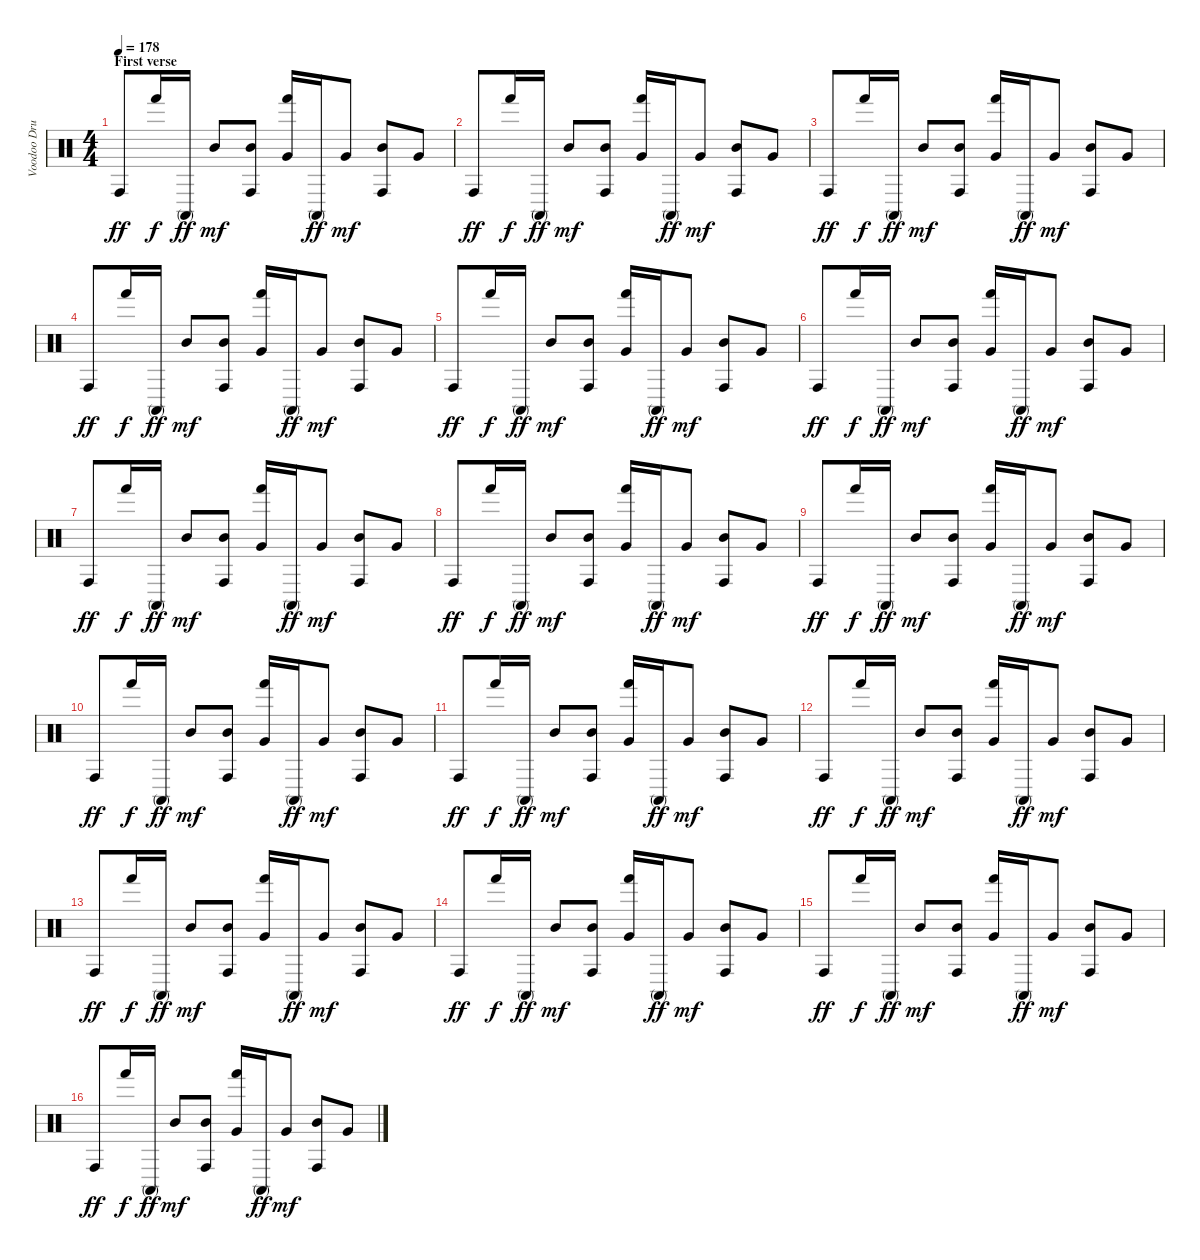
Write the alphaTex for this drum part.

\track ("Voodoo Drums" "Voodoo Dru") {instrument percussion}
\staff {score}
\articulation defaults
\ts (4 4)
\section ("" "First verse")
\tempo 178
\clef neutral
\ks c "Conga high (hit)".8{dy ff} "Hand (hit)".16{dy f} "Conga high (mute)".16{dy ff} "Mid Tom (hit)".8{dy mf}
("Conga high (hit)" "Mid Tom (hit)").8 ("Hand (hit)" "Very Low Tom (hit)").16 "Conga high (mute)".16{dy ff} "Very Low Tom (hit)".8{dy mf} ("Conga high (hit)" "Mid Tom (hit)").8 "Very Low Tom (hit)".8 |
"Conga high (hit)".8{dy ff} "Hand (hit)".16{dy f} "Conga high (mute)".16{dy ff} "Mid Tom (hit)".8{dy mf} ("Conga high (hit)" "Mid Tom (hit)").8 ("Hand (hit)" "Very Low Tom (hit)").16 "Conga high (mute)".16{dy ff} "Very Low Tom (hit)".8{dy mf} ("Conga high (hit)" "Mid Tom (hit)").8 "Very Low Tom (hit)".8 |
"Conga high (hit)".8{dy ff} "Hand (hit)".16{dy f} "Conga high (mute)".16{dy ff} "Mid Tom (hit)".8{dy mf} ("Conga high (hit)" "Mid Tom (hit)").8 ("Hand (hit)" "Very Low Tom (hit)").16 "Conga high (mute)".16{dy ff} "Very Low Tom (hit)".8{dy mf} ("Conga high (hit)" "Mid Tom (hit)").8 "Very Low Tom (hit)".8 |
"Conga high (hit)".8{dy ff} "Hand (hit)".16{dy f} "Conga high (mute)".16{dy ff} "Mid Tom (hit)".8{dy mf} ("Conga high (hit)" "Mid Tom (hit)").8 ("Hand (hit)" "Very Low Tom (hit)").16 "Conga high (mute)".16{dy ff} "Very Low Tom (hit)".8{dy mf} ("Conga high (hit)" "Mid Tom (hit)").8 "Very Low Tom (hit)".8 |
"Conga high (hit)".8{dy ff} "Hand (hit)".16{dy f} "Conga high (mute)".16{dy ff} "Mid Tom (hit)".8{dy mf} ("Conga high (hit)" "Mid Tom (hit)").8 ("Hand (hit)" "Very Low Tom (hit)").16 "Conga high (mute)".16{dy ff} "Very Low Tom (hit)".8{dy mf} ("Conga high (hit)" "Mid Tom (hit)").8 "Very Low Tom (hit)".8 |
"Conga high (hit)".8{dy ff} "Hand (hit)".16{dy f} "Conga high (mute)".16{dy ff} "Mid Tom (hit)".8{dy mf} ("Conga high (hit)" "Mid Tom (hit)").8 ("Hand (hit)" "Very Low Tom (hit)").16 "Conga high (mute)".16{dy ff} "Very Low Tom (hit)".8{dy mf} ("Conga high (hit)" "Mid Tom (hit)").8 "Very Low Tom (hit)".8 |
"Conga high (hit)".8{dy ff} "Hand (hit)".16{dy f} "Conga high (mute)".16{dy ff} "Mid Tom (hit)".8{dy mf} ("Conga high (hit)" "Mid Tom (hit)").8 ("Hand (hit)" "Very Low Tom (hit)").16 "Conga high (mute)".16{dy ff} "Very Low Tom (hit)".8{dy mf} ("Conga high (hit)" "Mid Tom (hit)").8 "Very Low Tom (hit)".8 |
"Conga high (hit)".8{dy ff} "Hand (hit)".16{dy f} "Conga high (mute)".16{dy ff} "Mid Tom (hit)".8{dy mf} ("Conga high (hit)" "Mid Tom (hit)").8 ("Hand (hit)" "Very Low Tom (hit)").16 "Conga high (mute)".16{dy ff} "Very Low Tom (hit)".8{dy mf} ("Conga high (hit)" "Mid Tom (hit)").8 "Very Low Tom (hit)".8 |
"Conga high (hit)".8{dy ff} "Hand (hit)".16{dy f} "Conga high (mute)".16{dy ff} "Mid Tom (hit)".8{dy mf} ("Conga high (hit)" "Mid Tom (hit)").8 ("Hand (hit)" "Very Low Tom (hit)").16 "Conga high (mute)".16{dy ff} "Very Low Tom (hit)".8{dy mf} ("Conga high (hit)" "Mid Tom (hit)").8 "Very Low Tom (hit)".8 |
"Conga high (hit)".8{dy ff} "Hand (hit)".16{dy f} "Conga high (mute)".16{dy ff} "Mid Tom (hit)".8{dy mf} ("Conga high (hit)" "Mid Tom (hit)").8 ("Hand (hit)" "Very Low Tom (hit)").16 "Conga high (mute)".16{dy ff} "Very Low Tom (hit)".8{dy mf} ("Conga high (hit)" "Mid Tom (hit)").8 "Very Low Tom (hit)".8 |
"Conga high (hit)".8{dy ff} "Hand (hit)".16{dy f} "Conga high (mute)".16{dy ff} "Mid Tom (hit)".8{dy mf} ("Conga high (hit)" "Mid Tom (hit)").8 ("Hand (hit)" "Very Low Tom (hit)").16 "Conga high (mute)".16{dy ff} "Very Low Tom (hit)".8{dy mf} ("Conga high (hit)" "Mid Tom (hit)").8 "Very Low Tom (hit)".8 |
"Conga high (hit)".8{dy ff} "Hand (hit)".16{dy f} "Conga high (mute)".16{dy ff} "Mid Tom (hit)".8{dy mf} ("Conga high (hit)" "Mid Tom (hit)").8 ("Hand (hit)" "Very Low Tom (hit)").16 "Conga high (mute)".16{dy ff} "Very Low Tom (hit)".8{dy mf} ("Conga high (hit)" "Mid Tom (hit)").8 "Very Low Tom (hit)".8 |
"Conga high (hit)".8{dy ff} "Hand (hit)".16{dy f} "Conga high (mute)".16{dy ff} "Mid Tom (hit)".8{dy mf} ("Conga high (hit)" "Mid Tom (hit)").8 ("Hand (hit)" "Very Low Tom (hit)").16 "Conga high (mute)".16{dy ff} "Very Low Tom (hit)".8{dy mf} ("Conga high (hit)" "Mid Tom (hit)").8 "Very Low Tom (hit)".8 |
"Conga high (hit)".8{dy ff} "Hand (hit)".16{dy f} "Conga high (mute)".16{dy ff} "Mid Tom (hit)".8{dy mf} ("Conga high (hit)" "Mid Tom (hit)").8 ("Hand (hit)" "Very Low Tom (hit)").16 "Conga high (mute)".16{dy ff} "Very Low Tom (hit)".8{dy mf} ("Conga high (hit)" "Mid Tom (hit)").8 "Very Low Tom (hit)".8 |
"Conga high (hit)".8{dy ff} "Hand (hit)".16{dy f} "Conga high (mute)".16{dy ff} "Mid Tom (hit)".8{dy mf} ("Conga high (hit)" "Mid Tom (hit)").8 ("Hand (hit)" "Very Low Tom (hit)").16 "Conga high (mute)".16{dy ff} "Very Low Tom (hit)".8{dy mf} ("Conga high (hit)" "Mid Tom (hit)").8 "Very Low Tom (hit)".8 |
"Conga high (hit)".8{dy ff} "Hand (hit)".16{dy f} "Conga high (mute)".16{dy ff} "Mid Tom (hit)".8{dy mf} ("Conga high (hit)" "Mid Tom (hit)").8 ("Hand (hit)" "Very Low Tom (hit)").16 "Conga high (mute)".16{dy ff} "Very Low Tom (hit)".8{dy mf} ("Conga high (hit)" "Mid Tom (hit)").8 "Very Low Tom (hit)".8
